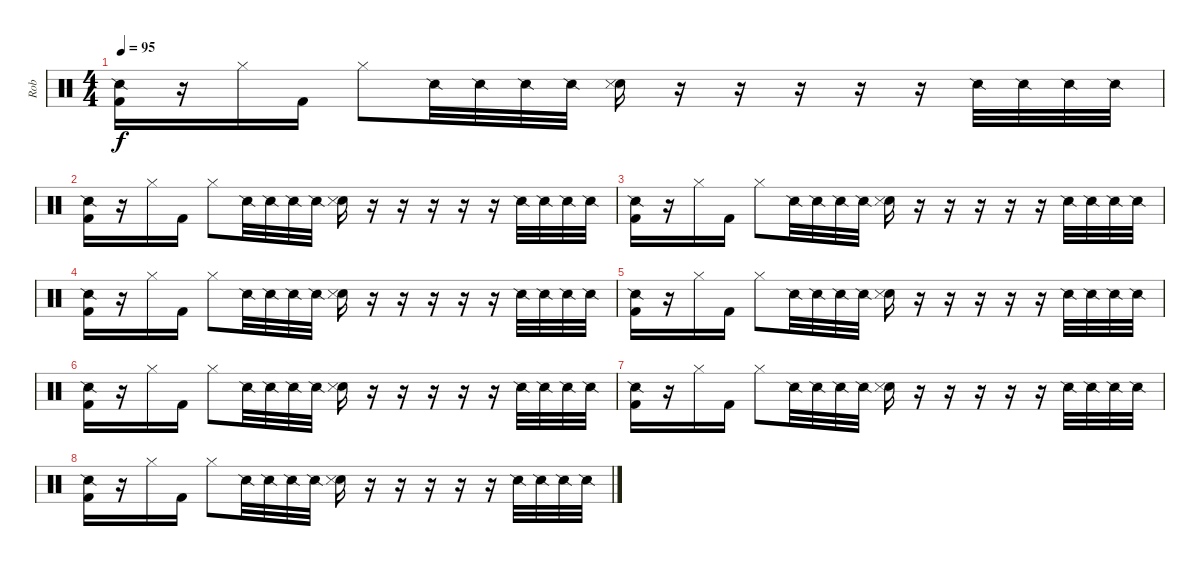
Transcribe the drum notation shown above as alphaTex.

\track ("Rob" "Rob") {instrument percussion}
\staff {score}
\articulation defaults
\ts (4 4)
\tempo 95
\clef neutral
\ks c
("Kick (hit) 2" "Snare (side stick) 2").16{dy f volume 12} r.16 "Hi-Hat (closed)".16 "Kick (hit) 2".16 "Hi-Hat (closed)".8 "Snare (side stick) 2".32 "Snare (side stick) 2".32 "Snare (side stick) 2".32 "Snare (side stick) 2".32 ("Snare (hit) 2" "Metronome (hit)").16 r.16 r.16 r.16 r.16 r.16 "Snare (side stick) 2".32 "Snare (side stick) 2".32 "Snare (side stick) 2".32 "Snare (side stick) 2".32 |
("Kick (hit) 2" "Snare (side stick) 2").16{volume 12} r.16 "Hi-Hat (closed)".16 "Kick (hit) 2".16 "Hi-Hat (closed)".8 "Snare (side stick) 2".32 "Snare (side stick) 2".32 "Snare (side stick) 2".32 "Snare (side stick) 2".32 ("Snare (hit) 2" "Metronome (hit)").16 r.16 r.16 r.16 r.16 r.16 "Snare (side stick) 2".32 "Snare (side stick) 2".32 "Snare (side stick) 2".32 "Snare (side stick) 2".32 |
("Kick (hit) 2" "Snare (side stick) 2").16{volume 12} r.16 "Hi-Hat (closed)".16 "Kick (hit) 2".16 "Hi-Hat (closed)".8 "Snare (side stick) 2".32 "Snare (side stick) 2".32 "Snare (side stick) 2".32 "Snare (side stick) 2".32 ("Snare (hit) 2" "Metronome (hit)").16 r.16 r.16 r.16 r.16 r.16 "Snare (side stick) 2".32 "Snare (side stick) 2".32 "Snare (side stick) 2".32 "Snare (side stick) 2".32 |
("Kick (hit) 2" "Snare (side stick) 2").16{volume 12} r.16 "Hi-Hat (closed)".16 "Kick (hit) 2".16 "Hi-Hat (closed)".8 "Snare (side stick) 2".32 "Snare (side stick) 2".32 "Snare (side stick) 2".32 "Snare (side stick) 2".32 ("Snare (hit) 2" "Metronome (hit)").16 r.16 r.16 r.16 r.16 r.16 "Snare (side stick) 2".32 "Snare (side stick) 2".32 "Snare (side stick) 2".32 "Snare (side stick) 2".32 |
("Kick (hit) 2" "Snare (side stick) 2").16{volume 12} r.16 "Hi-Hat (closed)".16 "Kick (hit) 2".16 "Hi-Hat (closed)".8 "Snare (side stick) 2".32 "Snare (side stick) 2".32 "Snare (side stick) 2".32 "Snare (side stick) 2".32 ("Snare (hit) 2" "Metronome (hit)").16 r.16 r.16 r.16 r.16 r.16 "Snare (side stick) 2".32 "Snare (side stick) 2".32 "Snare (side stick) 2".32 "Snare (side stick) 2".32 |
("Kick (hit) 2" "Snare (side stick) 2").16{volume 12} r.16 "Hi-Hat (closed)".16 "Kick (hit) 2".16 "Hi-Hat (closed)".8 "Snare (side stick) 2".32 "Snare (side stick) 2".32 "Snare (side stick) 2".32 "Snare (side stick) 2".32 ("Snare (hit) 2" "Metronome (hit)").16 r.16 r.16 r.16 r.16 r.16 "Snare (side stick) 2".32 "Snare (side stick) 2".32 "Snare (side stick) 2".32 "Snare (side stick) 2".32 |
("Kick (hit) 2" "Snare (side stick) 2").16{volume 12} r.16 "Hi-Hat (closed)".16 "Kick (hit) 2".16 "Hi-Hat (closed)".8 "Snare (side stick) 2".32 "Snare (side stick) 2".32 "Snare (side stick) 2".32 "Snare (side stick) 2".32 ("Snare (hit) 2" "Metronome (hit)").16 r.16 r.16 r.16 r.16 r.16 "Snare (side stick) 2".32 "Snare (side stick) 2".32 "Snare (side stick) 2".32 "Snare (side stick) 2".32 |
("Kick (hit) 2" "Snare (side stick) 2").16{volume 12} r.16 "Hi-Hat (closed)".16 "Kick (hit) 2".16 "Hi-Hat (closed)".8 "Snare (side stick) 2".32 "Snare (side stick) 2".32 "Snare (side stick) 2".32 "Snare (side stick) 2".32 ("Snare (hit) 2" "Metronome (hit)").16 r.16 r.16 r.16 r.16 r.16 "Snare (side stick) 2".32 "Snare (side stick) 2".32 "Snare (side stick) 2".32 "Snare (side stick) 2".32
